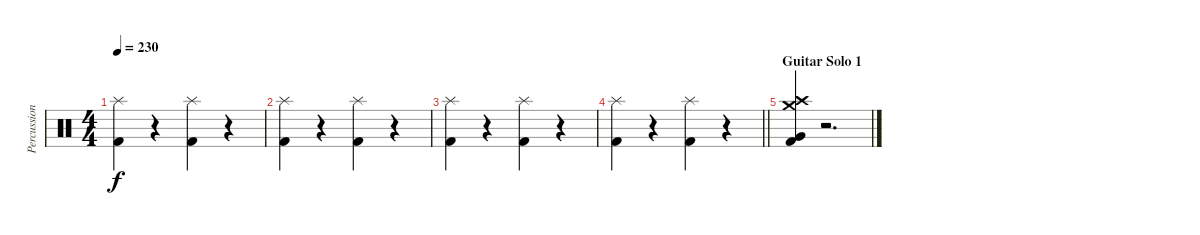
\track ("Percussion" "Percussion") {instrument percussion}
\staff {score}
\articulation defaults
\ts (4 4)
\tempo 230
\clef neutral
\ks c
("Kick (hit) 2" "Splash (hit)").4{dy f} r.4 ("Kick (hit) 2" "Splash (hit)").4 r.4 |
("Kick (hit) 2" "Splash (hit)").4 r.4 ("Kick (hit) 2" "Splash (hit)").4 r.4 |
("Kick (hit) 2" "Splash (hit)").4 r.4 ("Kick (hit) 2" "Splash (hit)").4 r.4 |
\barLineRight lightlight
("Kick (hit) 2" "Splash (hit)").4 r.4 ("Kick (hit) 2" "Splash (hit)").4 r.4 |
\section ("" "Guitar Solo 1")
("Crash high (hit)" "Crash medium (hit)" "Kick (hit) 2" "Very Low Tom (hit)").4 r.2{d}
